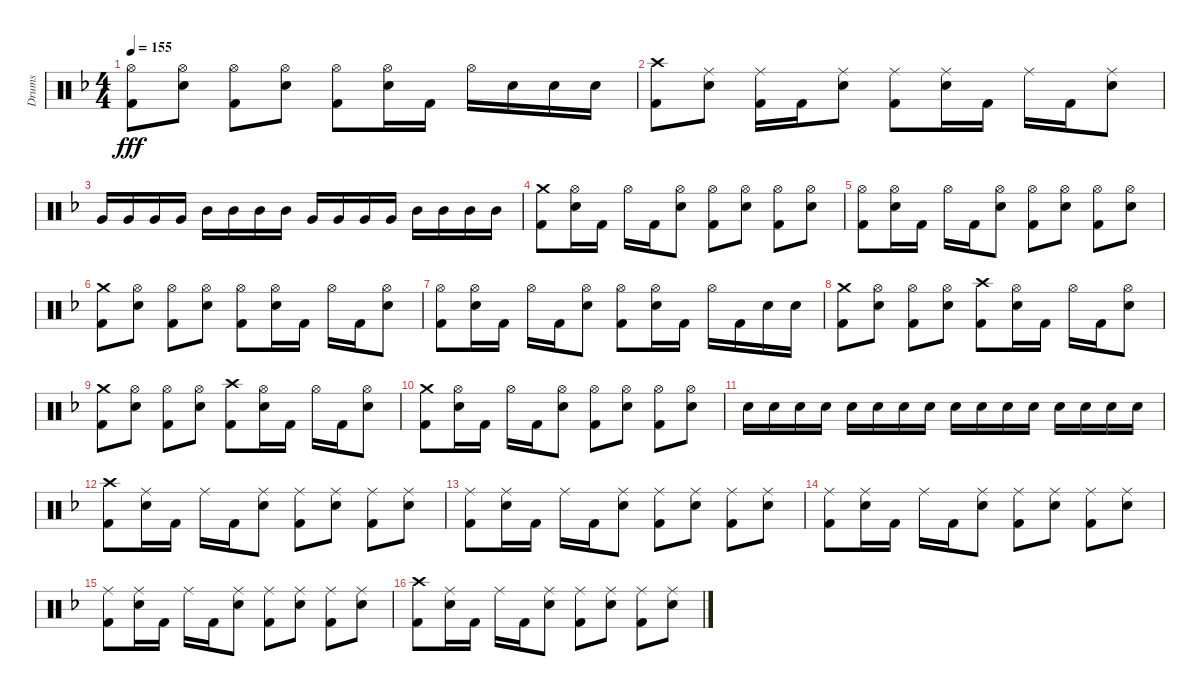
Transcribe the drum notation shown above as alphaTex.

\track ("Drums" "Drums") {instrument percussion}
\staff {score}
\articulation defaults
\ts (4 4)
\tempo 155
\clef neutral
\ks f
("Hi-Hat (open)" "Kick (hit) 2").8{dy fff} ("Hi-Hat (open)" "Electric Snare (hit)").8 ("Hi-Hat (open)" "Kick (hit) 2").8 ("Hi-Hat (open)" "Electric Snare (hit)").8 ("Hi-Hat (open)" "Kick (hit) 2").8 ("Hi-Hat (open)" "Electric Snare (hit)").16 "Kick (hit) 2".16 "Hi-Hat (open)".16 "Electric Snare (hit)".16 "Electric Snare (hit)".16 "Electric Snare (hit)".16 |
("Crash high (hit)" "Kick (hit) 2").8 ("Ride (middle)" "Electric Snare (hit)").8 ("Ride (middle)" "Kick (hit) 2").16 "Kick (hit) 2".16 ("Ride (middle)" "Electric Snare (hit)").8 ("Ride (middle)" "Kick (hit) 2").8 ("Ride (middle)" "Electric Snare (hit)").16 "Kick (hit) 2".16 "Ride (middle)".16 "Kick (hit) 2".16 ("Ride (middle)" "Electric Snare (hit)").8 |
"Very Low Tom (hit)".16 "Very Low Tom (hit)".16 "Very Low Tom (hit)".16 "Very Low Tom (hit)".16 "Mid Tom (hit)".16 "Mid Tom (hit)".16 "Mid Tom (hit)".16 "Mid Tom (hit)".16 "Very Low Tom (hit)".16 "Very Low Tom (hit)".16 "Very Low Tom (hit)".16 "Very Low Tom (hit)".16 "Mid Tom (hit)".16 "Mid Tom (hit)".16 "Mid Tom (hit)".16 "Mid Tom (hit)".16 |
("Crash medium (hit)" "Kick (hit) 2").8 ("Hi-Hat (open)" "Electric Snare (hit)").16 "Kick (hit) 2".16 "Hi-Hat (open)".16 "Kick (hit) 2".16 ("Hi-Hat (open)" "Electric Snare (hit)").8 ("Hi-Hat (open)" "Kick (hit) 2").8 ("Hi-Hat (open)" "Electric Snare (hit)").8 ("Hi-Hat (open)" "Kick (hit) 2").8 ("Hi-Hat (open)" "Electric Snare (hit)").8 |
("Hi-Hat (open)" "Kick (hit) 2").8 ("Hi-Hat (open)" "Electric Snare (hit)").16 "Kick (hit) 2".16 "Hi-Hat (open)".16 "Kick (hit) 2".16 ("Hi-Hat (open)" "Electric Snare (hit)").8 ("Hi-Hat (open)" "Kick (hit) 2").8 ("Hi-Hat (open)" "Electric Snare (hit)").8 ("Hi-Hat (open)" "Kick (hit) 2").8 ("Hi-Hat (open)" "Electric Snare (hit)").8 |
("Crash medium (hit)" "Kick (hit) 2").8 ("Hi-Hat (open)" "Electric Snare (hit)").8 ("Hi-Hat (open)" "Kick (hit) 2").8 ("Hi-Hat (open)" "Electric Snare (hit)").8 ("Hi-Hat (open)" "Kick (hit) 2").8 ("Hi-Hat (open)" "Electric Snare (hit)").16 "Kick (hit) 2".16 "Hi-Hat (open)".16 "Kick (hit) 2".16 ("Hi-Hat (open)" "Electric Snare (hit)").8 |
("Hi-Hat (open)" "Kick (hit) 2").8 ("Hi-Hat (open)" "Electric Snare (hit)").16 "Kick (hit) 2".16 "Hi-Hat (open)".16 "Kick (hit) 2".16 ("Hi-Hat (open)" "Electric Snare (hit)").8 ("Hi-Hat (open)" "Kick (hit) 2").8 ("Hi-Hat (open)" "Electric Snare (hit)").16 "Kick (hit) 2".16 "Hi-Hat (open)".16 "Kick (hit) 2".16 "Electric Snare (hit)".16 "Electric Snare (hit)".16 |
("Crash medium (hit)" "Kick (hit) 2").8 ("Hi-Hat (open)" "Electric Snare (hit)").8 ("Hi-Hat (open)" "Kick (hit) 2").8 ("Hi-Hat (open)" "Electric Snare (hit)").8 ("Crash high (hit)" "Kick (hit) 2").8 ("Hi-Hat (open)" "Electric Snare (hit)").16 "Kick (hit) 2".16 "Hi-Hat (open)".16 "Kick (hit) 2".16 ("Hi-Hat (open)" "Electric Snare (hit)").8 |
("Crash medium (hit)" "Kick (hit) 2").8 ("Hi-Hat (open)" "Electric Snare (hit)").8 ("Hi-Hat (open)" "Kick (hit) 2").8 ("Hi-Hat (open)" "Electric Snare (hit)").8 ("Crash high (hit)" "Kick (hit) 2").8 ("Hi-Hat (open)" "Electric Snare (hit)").16 "Kick (hit) 2".16 "Hi-Hat (open)".16 "Kick (hit) 2".16 ("Hi-Hat (open)" "Electric Snare (hit)").8 |
("Crash medium (hit)" "Kick (hit) 2").8 ("Hi-Hat (open)" "Electric Snare (hit)").16 "Kick (hit) 2".16 "Hi-Hat (open)".16 "Kick (hit) 2".16 ("Hi-Hat (open)" "Electric Snare (hit)").8 ("Hi-Hat (open)" "Kick (hit) 2").8 ("Hi-Hat (open)" "Electric Snare (hit)").8 ("Hi-Hat (open)" "Kick (hit) 2").8 ("Hi-Hat (open)" "Electric Snare (hit)").8 |
"Electric Snare (hit)".16 "Electric Snare (hit)".16 "Electric Snare (hit)".16 "Electric Snare (hit)".16 "Electric Snare (hit)".16 "Electric Snare (hit)".16 "Electric Snare (hit)".16 "Electric Snare (hit)".16 "Electric Snare (hit)".16 "Electric Snare (hit)".16 "Electric Snare (hit)".16 "Electric Snare (hit)".16 "Electric Snare (hit)".16 "Electric Snare (hit)".16 "Electric Snare (hit)".16 "Electric Snare (hit)".16 |
("Crash high (hit)" "Kick (hit) 2").8 ("Ride (middle)" "Electric Snare (hit)").16 "Kick (hit) 2".16 "Ride (middle)".16 "Kick (hit) 2".16 ("Ride (middle)" "Electric Snare (hit)").8 ("Ride (middle)" "Kick (hit) 2").8 ("Ride (middle)" "Electric Snare (hit)").8 ("Ride (middle)" "Kick (hit) 2").8 ("Ride (middle)" "Electric Snare (hit)").8 |
("Ride (middle)" "Kick (hit) 2").8 ("Ride (middle)" "Electric Snare (hit)").16 "Kick (hit) 2".16 "Ride (middle)".16 "Kick (hit) 2".16 ("Ride (middle)" "Electric Snare (hit)").8 ("Ride (middle)" "Kick (hit) 2").8 ("Ride (middle)" "Electric Snare (hit)").8 ("Ride (middle)" "Kick (hit) 2").8 ("Ride (middle)" "Electric Snare (hit)").8 |
("Ride (middle)" "Kick (hit) 2").8 ("Ride (middle)" "Electric Snare (hit)").16 "Kick (hit) 2".16 "Ride (middle)".16 "Kick (hit) 2".16 ("Ride (middle)" "Electric Snare (hit)").8 ("Ride (middle)" "Kick (hit) 2").8 ("Ride (middle)" "Electric Snare (hit)").8 ("Ride (middle)" "Kick (hit) 2").8 ("Ride (middle)" "Electric Snare (hit)").8 |
("Ride (middle)" "Kick (hit) 2").8 ("Ride (middle)" "Electric Snare (hit)").16 "Kick (hit) 2".16 "Ride (middle)".16 "Kick (hit) 2".16 ("Ride (middle)" "Electric Snare (hit)").8 ("Ride (middle)" "Kick (hit) 2").8 ("Ride (middle)" "Electric Snare (hit)").8 ("Ride (middle)" "Kick (hit) 2").8 ("Ride (middle)" "Electric Snare (hit)").8 |
("Crash high (hit)" "Kick (hit) 2").8 ("Ride (middle)" "Electric Snare (hit)").16 "Kick (hit) 2".16 "Ride (middle)".16 "Kick (hit) 2".16 ("Ride (middle)" "Electric Snare (hit)").8 ("Ride (middle)" "Kick (hit) 2").8 ("Ride (middle)" "Electric Snare (hit)").8 ("Ride (middle)" "Kick (hit) 2").8 ("Ride (middle)" "Electric Snare (hit)").8
